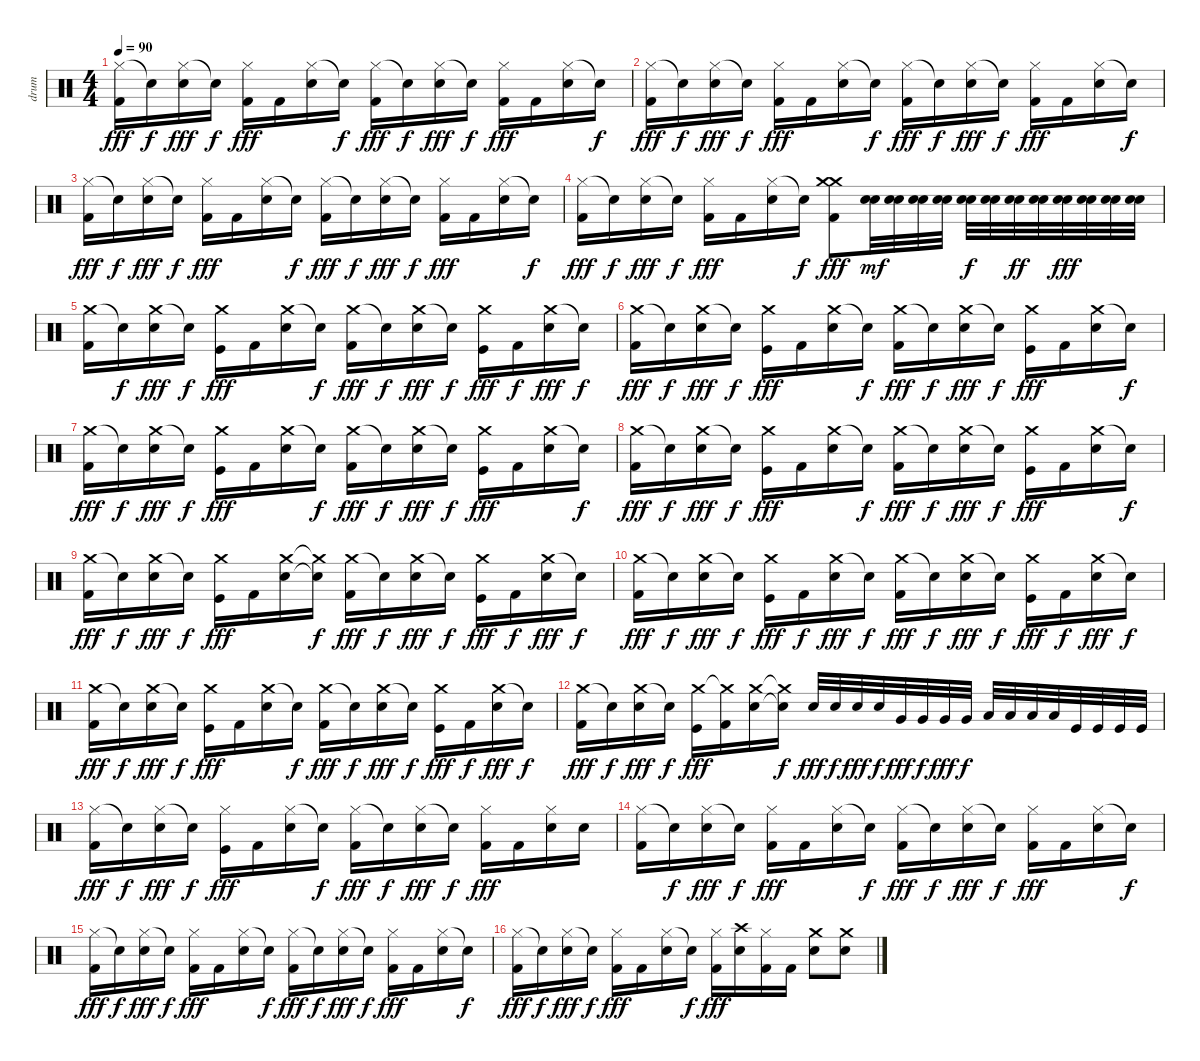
\track ("drum" "drum") {instrument percussion}
\staff {score}
\articulation defaults
\ts (4 4)
\tempo 90
\clef neutral
\ks c
("Hi-Hat (closed)" "Kick (hit) 2").16{dy fff} "Snare (hit)"{t}.16{dy f} ("Hi-Hat (closed)" "Electric Snare (hit)").16{dy fff} "Snare (hit)"{t}.16{dy f} ("Hi-Hat (closed)" "Kick (hit) 2").16{dy fff} "Kick (hit) 2".16 ("Hi-Hat (closed)" "Electric Snare (hit)").16 "Snare (hit)"{t}.16{dy f} ("Hi-Hat (closed)" "Kick (hit) 2").16{dy fff} "Snare (hit)"{t}.16{dy f} ("Hi-Hat (closed)" "Electric Snare (hit)").16{dy fff} "Snare (hit)"{t}.16{dy f} ("Hi-Hat (closed)" "Kick (hit) 2").16{dy fff} "Kick (hit) 2".16 ("Hi-Hat (closed)" "Electric Snare (hit)").16 "Snare (hit)"{t}.16{dy f} |
("Hi-Hat (closed)" "Kick (hit) 2").16{dy fff} "Snare (hit)"{t}.16{dy f} ("Hi-Hat (closed)" "Electric Snare (hit)").16{dy fff} "Snare (hit)"{t}.16{dy f} ("Hi-Hat (closed)" "Kick (hit) 2").16{dy fff} "Kick (hit) 2".16 ("Hi-Hat (closed)" "Electric Snare (hit)").16 "Snare (hit)"{t}.16{dy f} ("Hi-Hat (closed)" "Kick (hit) 2").16{dy fff} "Snare (hit)"{t}.16{dy f} ("Hi-Hat (closed)" "Electric Snare (hit)").16{dy fff} "Snare (hit)"{t}.16{dy f} ("Hi-Hat (closed)" "Kick (hit) 2").16{dy fff} "Kick (hit) 2".16 ("Hi-Hat (closed)" "Electric Snare (hit)").16 "Snare (hit)"{t}.16{dy f} |
("Hi-Hat (closed)" "Kick (hit) 2").16{dy fff} "Snare (hit)"{t}.16{dy f} ("Hi-Hat (closed)" "Electric Snare (hit)").16{dy fff} "Snare (hit)"{t}.16{dy f} ("Hi-Hat (closed)" "Kick (hit) 2").16{dy fff} "Kick (hit) 2".16 ("Hi-Hat (closed)" "Electric Snare (hit)").16 "Snare (hit)"{t}.16{dy f} ("Hi-Hat (closed)" "Kick (hit) 2").16{dy fff} "Snare (hit)"{t}.16{dy f} ("Hi-Hat (closed)" "Electric Snare (hit)").16{dy fff} "Snare (hit)"{t}.16{dy f} ("Hi-Hat (closed)" "Kick (hit) 2").16{dy fff} "Kick (hit) 2".16 ("Hi-Hat (closed)" "Electric Snare (hit)").16 "Snare (hit)"{t}.16{dy f} |
("Hi-Hat (closed)" "Kick (hit) 2").16{dy fff} "Snare (hit)"{t}.16{dy f} ("Hi-Hat (closed)" "Electric Snare (hit)").16{dy fff} "Snare (hit)"{t}.16{dy f} ("Hi-Hat (closed)" "Kick (hit) 2").16{dy fff} "Kick (hit) 2".16 ("Hi-Hat (closed)" "Electric Snare (hit)").16 "Snare (hit)"{t}.16{dy f} ("Crash medium (hit)" "Crash medium (hit)" "Kick (hit) 2").8{dy fff} ("Electric Snare (hit)" "Electric Snare (hit)").32{dy mf} ("Electric Snare (hit)" "Electric Snare (hit)").32 ("Electric Snare (hit)" "Electric Snare (hit)").32 ("Electric Snare (hit)" "Electric Snare (hit)").32 ("Electric Snare (hit)" "Electric Snare (hit)").32{dy f} ("Electric Snare (hit)" "Electric Snare (hit)").32 ("Electric Snare (hit)" "Electric Snare (hit)").32{dy ff} ("Electric Snare (hit)" "Electric Snare (hit)").32 ("Electric Snare (hit)" "Electric Snare (hit)").32{dy fff} ("Electric Snare (hit)" "Electric Snare (hit)").32 ("Electric Snare (hit)" "Electric Snare (hit)").32 ("Electric Snare (hit)" "Electric Snare (hit)").32 |
("Crash medium (hit)" "Kick (hit) 2").16 "Snare (hit)"{t}.16{dy f} ("Crash medium (hit)" "Electric Snare (hit)").16{dy fff} "Snare (hit)"{t}.16{dy f} ("Crash medium (hit)" "Kick (hit)").16{dy fff} "Kick (hit) 2".16 ("Crash medium (hit)" "Electric Snare (hit)").16 "Snare (hit)"{t}.16{dy f} ("Crash medium (hit)" "Kick (hit) 2").16{dy fff} "Snare (hit)"{t}.16{dy f} ("Crash medium (hit)" "Electric Snare (hit)").16{dy fff} "Snare (hit)"{t}.16{dy f} ("Crash medium (hit)" "Kick (hit)").16{dy fff} "Kick (hit) 2".16{dy f} ("Crash medium (hit)" "Electric Snare (hit)").16{dy fff} "Snare (hit)"{t}.16{dy f} |
("Crash medium (hit)" "Kick (hit) 2").16{dy fff} "Snare (hit)"{t}.16{dy f} ("Crash medium (hit)" "Electric Snare (hit)").16{dy fff} "Snare (hit)"{t}.16{dy f} ("Crash medium (hit)" "Kick (hit)").16{dy fff} "Kick (hit) 2".16 ("Crash medium (hit)" "Electric Snare (hit)").16 "Snare (hit)"{t}.16{dy f} ("Crash medium (hit)" "Kick (hit) 2").16{dy fff} "Snare (hit)"{t}.16{dy f} ("Crash medium (hit)" "Electric Snare (hit)").16{dy fff} "Snare (hit)"{t}.16{dy f} ("Crash medium (hit)" "Kick (hit)").16{dy fff} "Kick (hit) 2".16 ("Crash medium (hit)" "Electric Snare (hit)").16 "Snare (hit)"{t}.16{dy f} |
("Crash medium (hit)" "Kick (hit) 2").16{dy fff} "Snare (hit)"{t}.16{dy f} ("Crash medium (hit)" "Electric Snare (hit)").16{dy fff} "Snare (hit)"{t}.16{dy f} ("Crash medium (hit)" "Kick (hit)").16{dy fff} "Kick (hit) 2".16 ("Crash medium (hit)" "Electric Snare (hit)").16 "Snare (hit)"{t}.16{dy f} ("Crash medium (hit)" "Kick (hit) 2").16{dy fff} "Snare (hit)"{t}.16{dy f} ("Crash medium (hit)" "Electric Snare (hit)").16{dy fff} "Snare (hit)"{t}.16{dy f} ("Crash medium (hit)" "Kick (hit)").16{dy fff} "Kick (hit) 2".16 ("Crash medium (hit)" "Electric Snare (hit)").16 "Snare (hit)"{t}.16{dy f} |
("Crash medium (hit)" "Kick (hit) 2").16{dy fff} "Snare (hit)"{t}.16{dy f} ("Crash medium (hit)" "Electric Snare (hit)").16{dy fff} "Snare (hit)"{t}.16{dy f} ("Crash medium (hit)" "Kick (hit)").16{dy fff} "Kick (hit) 2".16 ("Crash medium (hit)" "Electric Snare (hit)").16 "Snare (hit)"{t}.16{dy f} ("Crash medium (hit)" "Kick (hit) 2").16{dy fff} "Snare (hit)"{t}.16{dy f} ("Crash medium (hit)" "Electric Snare (hit)").16{dy fff} "Snare (hit)"{t}.16{dy f} ("Crash medium (hit)" "Kick (hit)").16{dy fff} "Kick (hit) 2".16 ("Crash medium (hit)" "Electric Snare (hit)").16 "Snare (hit)"{t}.16{dy f} |
("Crash medium (hit)" "Kick (hit) 2").16{dy fff} "Snare (hit)"{t}.16{dy f} ("Crash medium (hit)" "Electric Snare (hit)").16{dy fff} "Snare (hit)"{t}.16{dy f} ("Crash medium (hit)" "Kick (hit)").16{dy fff} "Kick (hit) 2".16 ("Crash medium (hit)" "Electric Snare (hit)").16 ("Crash medium (hit)"{t} "Snare (hit)"{t}).16{dy f} ("Crash medium (hit)" "Kick (hit) 2").16{dy fff} "Snare (hit)"{t}.16{dy f} ("Crash medium (hit)" "Electric Snare (hit)").16{dy fff} "Snare (hit)"{t}.16{dy f} ("Crash medium (hit)" "Kick (hit)").16{dy fff} "Kick (hit) 2".16{dy f} ("Crash medium (hit)" "Electric Snare (hit)").16{dy fff} "Snare (hit)"{t}.16{dy f} |
("Crash medium (hit)" "Kick (hit) 2").16{dy fff} "Snare (hit)"{t}.16{dy f} ("Crash medium (hit)" "Electric Snare (hit)").16{dy fff} "Snare (hit)"{t}.16{dy f} ("Crash medium (hit)" "Kick (hit)").16{dy fff} "Kick (hit) 2".16{dy f} ("Crash medium (hit)" "Electric Snare (hit)").16{dy fff} "Snare (hit)"{t}.16{dy f} ("Crash medium (hit)" "Kick (hit) 2").16{dy fff} "Snare (hit)"{t}.16{dy f} ("Crash medium (hit)" "Electric Snare (hit)").16{dy fff} "Snare (hit)"{t}.16{dy f} ("Crash medium (hit)" "Kick (hit)").16{dy fff} "Kick (hit) 2".16{dy f} ("Crash medium (hit)" "Electric Snare (hit)").16{dy fff} "Snare (hit)"{t}.16{dy f} |
("Crash medium (hit)" "Kick (hit) 2").16{dy fff} "Snare (hit)"{t}.16{dy f} ("Crash medium (hit)" "Electric Snare (hit)").16{dy fff} "Snare (hit)"{t}.16{dy f} ("Crash medium (hit)" "Kick (hit)").16{dy fff} "Kick (hit) 2".16 ("Crash medium (hit)" "Electric Snare (hit)").16 "Snare (hit)"{t}.16{dy f} ("Crash medium (hit)" "Kick (hit) 2").16{dy fff} "Snare (hit)"{t}.16{dy f} ("Crash medium (hit)" "Electric Snare (hit)").16{dy fff} "Snare (hit)"{t}.16{dy f} ("Crash medium (hit)" "Kick (hit)").16{dy fff} "Kick (hit) 2".16{dy f} ("Crash medium (hit)" "Electric Snare (hit)").16{dy fff} "Snare (hit)"{t}.16{dy f} |
("Crash medium (hit)" "Kick (hit) 2").16{dy fff} "Snare (hit)"{t}.16{dy f} ("Crash medium (hit)" "Electric Snare (hit)").16{dy fff} "Snare (hit)"{t}.16{dy f} ("Crash medium (hit)" "Kick (hit)").16{dy fff} ("Crash medium (hit)"{t} "Kick (hit) 2").16 ("Crash medium (hit)" "Electric Snare (hit)").16 ("Crash medium (hit)"{t} "Snare (hit)"{t}).16{dy f} "Electric Snare (hit)".32{dy fff} "Electric Snare (hit)".32{dy f} "Electric Snare (hit)".32{dy fff} "Electric Snare (hit)".32{dy f} "Very Low Tom (hit)".32{dy fff} "Very Low Tom (hit)".32{dy f} "Very Low Tom (hit)".32{dy fff} "Very Low Tom (hit)".32{dy f} "Low Floor Tom (hit)".32 "Low Floor Tom (hit)".32 "Low Floor Tom (hit)".32 "Low Floor Tom (hit)".32 "Kick (hit)".32 "Kick (hit)".32 "Kick (hit)".32 "Kick (hit)".32 |
("Hi-Hat (closed)" "Kick (hit) 2").16{dy fff} "Snare (hit)"{t}.16{dy f} ("Hi-Hat (closed)" "Electric Snare (hit)").16{dy fff} "Snare (hit)"{t}.16{dy f} ("Hi-Hat (closed)" "Kick (hit)").16{dy fff} "Kick (hit) 2".16 ("Hi-Hat (closed)" "Electric Snare (hit)").16 "Snare (hit)"{t}.16{dy f} ("Hi-Hat (closed)" "Kick (hit) 2").16{dy fff} "Snare (hit)"{t}.16{dy f} ("Hi-Hat (closed)" "Electric Snare (hit)").16{dy fff} "Snare (hit)"{t}.16{dy f} ("Hi-Hat (closed)" "Kick (hit) 2").16{dy fff} "Kick (hit) 2".16 ("Hi-Hat (closed)" "Electric Snare (hit)").16 "Electric Snare (hit)".16 |
("Hi-Hat (closed)" "Kick (hit) 2").16 "Snare (hit)"{t}.16{dy f} ("Hi-Hat (closed)" "Electric Snare (hit)").16{dy fff} "Snare (hit)"{t}.16{dy f} ("Hi-Hat (closed)" "Kick (hit) 2").16{dy fff} "Kick (hit) 2".16 ("Hi-Hat (closed)" "Electric Snare (hit)").16 "Snare (hit)"{t}.16{dy f} ("Hi-Hat (closed)" "Kick (hit) 2").16{dy fff} "Snare (hit)"{t}.16{dy f} ("Hi-Hat (closed)" "Electric Snare (hit)").16{dy fff} "Snare (hit)"{t}.16{dy f} ("Hi-Hat (closed)" "Kick (hit) 2").16{dy fff} "Kick (hit) 2".16 ("Hi-Hat (closed)" "Electric Snare (hit)").16 "Snare (hit)"{t}.16{dy f} |
("Hi-Hat (closed)" "Kick (hit) 2").16{dy fff} "Snare (hit)"{t}.16{dy f} ("Hi-Hat (closed)" "Electric Snare (hit)").16{dy fff} "Snare (hit)"{t}.16{dy f} ("Hi-Hat (closed)" "Kick (hit) 2").16{dy fff} "Kick (hit) 2".16 ("Hi-Hat (closed)" "Electric Snare (hit)").16 "Snare (hit)"{t}.16{dy f} ("Hi-Hat (closed)" "Kick (hit) 2").16{dy fff} "Snare (hit)"{t}.16{dy f} ("Hi-Hat (closed)" "Electric Snare (hit)").16{dy fff} "Snare (hit)"{t}.16{dy f} ("Hi-Hat (closed)" "Kick (hit) 2").16{dy fff} "Kick (hit) 2".16 ("Hi-Hat (closed)" "Electric Snare (hit)").16 "Snare (hit)"{t}.16{dy f} |
("Hi-Hat (closed)" "Kick (hit) 2").16{dy fff} "Snare (hit)"{t}.16{dy f} ("Hi-Hat (closed)" "Electric Snare (hit)").16{dy fff} "Snare (hit)"{t}.16{dy f} ("Hi-Hat (closed)" "Kick (hit) 2").16{dy fff} "Kick (hit) 2".16 ("Hi-Hat (closed)" "Electric Snare (hit)").16 "Snare (hit)"{t}.16{dy f} ("Hi-Hat (closed)" "Kick (hit) 2").16{dy fff} ("Crash high (hit)" "Electric Snare (hit)").16 ("Hi-Hat (closed)" "Kick (hit) 2").16 "Kick (hit) 2".16 ("Crash medium (hit)" "Electric Snare (hit)").8 ("Crash medium (hit)" "Electric Snare (hit)").8
